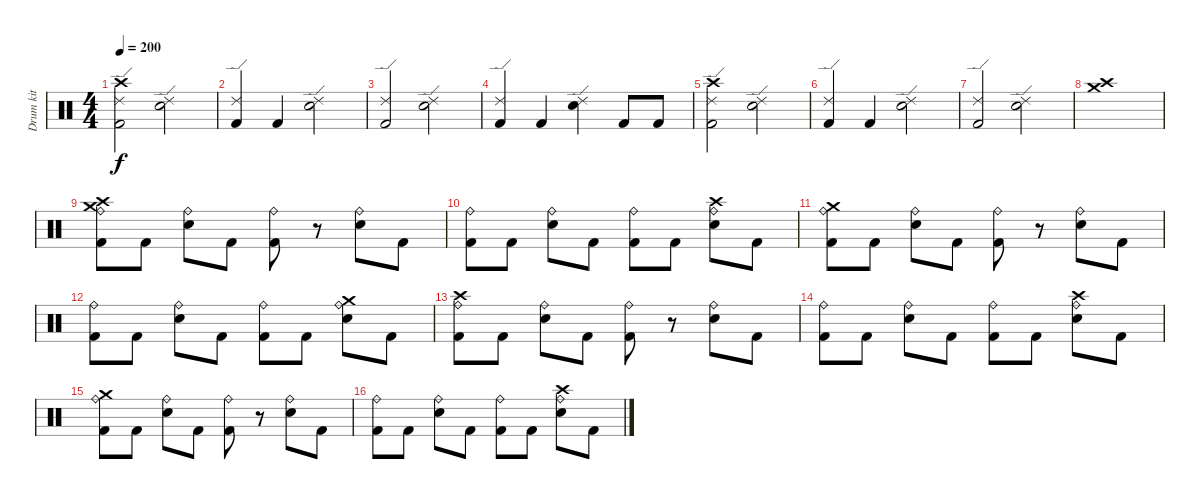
\track ("Drum kit" "Drum kit") {instrument percussion}
\staff {score}
\articulation defaults
\ts (4 4)
\tempo 200
\clef neutral
\ks c
("Crash high (hit)" "Kick (hit) 2" "Ride (edge) 2").2{dy f} ("Electric Snare (hit)" "Ride (edge) 2").2 |
("Kick (hit) 2" "Ride (edge) 2").4 "Kick (hit) 2".4 ("Electric Snare (hit)" "Ride (edge) 2").2 |
("Kick (hit) 2" "Ride (edge) 2").2 ("Electric Snare (hit)" "Ride (edge) 2").2 |
("Kick (hit) 2" "Ride (edge) 2").4 "Kick (hit) 2".4 ("Electric Snare (hit)" "Ride (edge) 2").4 "Kick (hit) 2".8 "Kick (hit) 2".8 |
("Crash high (hit)" "Kick (hit) 2" "Ride (edge) 2").2 ("Electric Snare (hit)" "Ride (edge) 2").2 |
("Kick (hit) 2" "Ride (edge) 2").4 "Kick (hit) 2".4 ("Electric Snare (hit)" "Ride (edge) 2").2 |
("Kick (hit) 2" "Ride (edge) 2").2 ("Electric Snare (hit)" "Ride (edge) 2").2 |
("Crash medium (hit)" "Crash high (hit)").1 |
("Crash medium (hit)" "Crash high (hit)" "Kick (hit) 2" "Ride (bell)").8 "Kick (hit) 2".8 ("Electric Snare (hit)" "Ride (bell)").8 "Kick (hit) 2".8 ("Kick (hit) 2" "Ride (bell)").8 r.8 ("Electric Snare (hit)" "Ride (bell)").8 "Kick (hit) 2".8 |
("Kick (hit) 2" "Ride (bell)").8 "Kick (hit) 2".8 ("Electric Snare (hit)" "Ride (bell)").8 "Kick (hit) 2".8 ("Kick (hit) 2" "Ride (bell)").8 "Kick (hit) 2".8 ("Crash high (hit)" "Electric Snare (hit)" "Ride (bell)").8 "Kick (hit) 2".8 |
("Crash medium (hit)" "Kick (hit) 2" "Ride (bell)").8 "Kick (hit) 2".8 ("Electric Snare (hit)" "Ride (bell)").8 "Kick (hit) 2".8 ("Kick (hit) 2" "Ride (bell)").8 r.8 ("Electric Snare (hit)" "Ride (bell)").8 "Kick (hit) 2".8 |
("Kick (hit) 2" "Ride (bell)").8 "Kick (hit) 2".8 ("Electric Snare (hit)" "Ride (bell)").8 "Kick (hit) 2".8 ("Kick (hit) 2" "Ride (bell)").8 "Kick (hit) 2".8 ("Crash medium (hit)" "Electric Snare (hit)" "Ride (bell)").8 "Kick (hit) 2".8 |
("Crash high (hit)" "Kick (hit) 2" "Ride (bell)").8 "Kick (hit) 2".8 ("Electric Snare (hit)" "Ride (bell)").8 "Kick (hit) 2".8 ("Kick (hit) 2" "Ride (bell)").8 r.8 ("Electric Snare (hit)" "Ride (bell)").8 "Kick (hit) 2".8 |
("Kick (hit) 2" "Ride (bell)").8 "Kick (hit) 2".8 ("Electric Snare (hit)" "Ride (bell)").8 "Kick (hit) 2".8 ("Kick (hit) 2" "Ride (bell)").8 "Kick (hit) 2".8 ("Crash high (hit)" "Electric Snare (hit)" "Ride (bell)").8 "Kick (hit) 2".8 |
("Crash medium (hit)" "Kick (hit) 2" "Ride (bell)").8 "Kick (hit) 2".8 ("Electric Snare (hit)" "Ride (bell)").8 "Kick (hit) 2".8 ("Kick (hit) 2" "Ride (bell)").8 r.8 ("Electric Snare (hit)" "Ride (bell)").8 "Kick (hit) 2".8 |
("Kick (hit) 2" "Ride (bell)").8 "Kick (hit) 2".8 ("Electric Snare (hit)" "Ride (bell)").8 "Kick (hit) 2".8 ("Kick (hit) 2" "Ride (bell)").8 "Kick (hit) 2".8 ("Crash high (hit)" "Electric Snare (hit)" "Ride (bell)").8 "Kick (hit) 2".8
